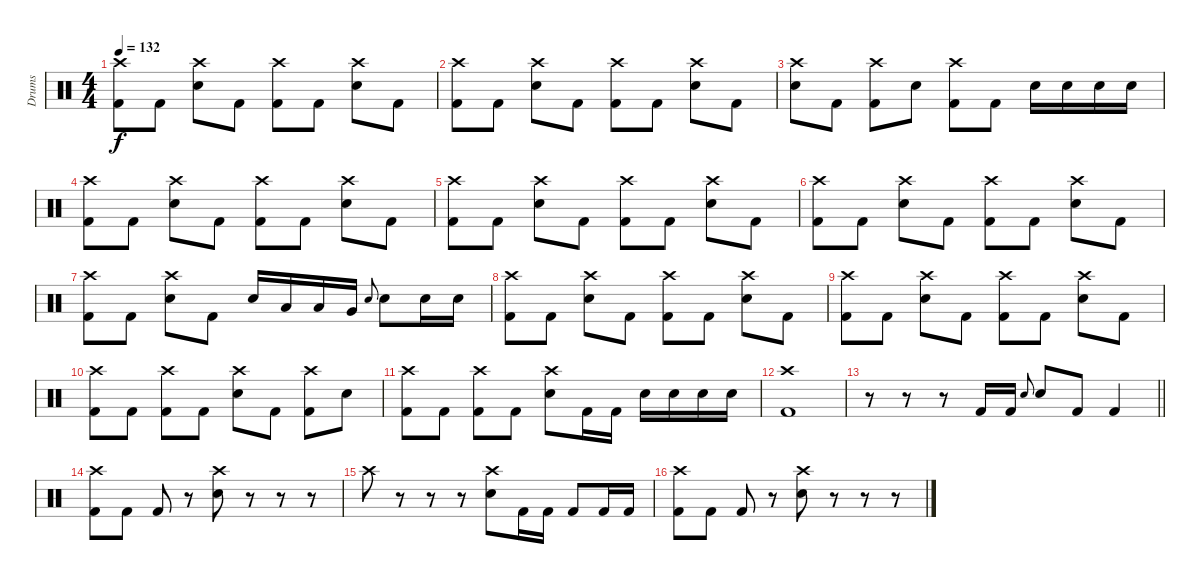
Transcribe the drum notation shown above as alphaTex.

\track ("Drums" "Drums") {instrument percussion}
\staff {score}
\articulation defaults
\ts (4 4)
\tempo 132
\clef neutral
\ks c
("Crash high (hit)" "Kick (hit) 2").8{dy f} "Kick (hit) 2".8 ("Crash high (hit)" "Electric Snare (hit)").8 "Kick (hit) 2".8 ("Crash high (hit)" "Kick (hit) 2").8 "Kick (hit) 2".8 ("Crash high (hit)" "Electric Snare (hit)").8 "Kick (hit) 2".8 |
("Crash high (hit)" "Kick (hit) 2").8 "Kick (hit) 2".8 ("Crash high (hit)" "Electric Snare (hit)").8 "Kick (hit) 2".8 ("Crash high (hit)" "Kick (hit) 2").8 "Kick (hit) 2".8 ("Crash high (hit)" "Electric Snare (hit)").8 "Kick (hit) 2".8 |
("Crash high (hit)" "Electric Snare (hit)").8 "Kick (hit) 2".8 ("Crash high (hit)" "Kick (hit) 2").8 "Electric Snare (hit)".8 ("Crash high (hit)" "Kick (hit) 2").8 "Kick (hit) 2".8 "Electric Snare (hit)".16 "Electric Snare (hit)".16 "Electric Snare (hit)".16 "Electric Snare (hit)".16 |
("Crash high (hit)" "Kick (hit) 2").8 "Kick (hit) 2".8 ("Crash high (hit)" "Electric Snare (hit)").8 "Kick (hit) 2".8 ("Crash high (hit)" "Kick (hit) 2").8 "Kick (hit) 2".8 ("Crash high (hit)" "Electric Snare (hit)").8 "Kick (hit) 2".8 |
("Crash high (hit)" "Kick (hit) 2").8 "Kick (hit) 2".8 ("Crash high (hit)" "Electric Snare (hit)").8 "Kick (hit) 2".8 ("Crash high (hit)" "Kick (hit) 2").8 "Kick (hit) 2".8 ("Crash high (hit)" "Electric Snare (hit)").8 "Kick (hit) 2".8 |
("Crash high (hit)" "Kick (hit) 2").8 "Kick (hit) 2".8 ("Crash high (hit)" "Electric Snare (hit)").8 "Kick (hit) 2".8 ("Crash high (hit)" "Kick (hit) 2").8 "Kick (hit) 2".8 ("Crash high (hit)" "Electric Snare (hit)").8 "Kick (hit) 2".8 |
("Crash high (hit)" "Kick (hit) 2").8 "Kick (hit) 2".8 ("Crash high (hit)" "Electric Snare (hit)").8 "Kick (hit) 2".8 "Electric Snare (hit)".16 "Low Tom (hit)".16 "Low Tom (hit)".16 "Very Low Tom (hit)".16 "Electric Snare (hit)".8{gr onbeat} "Electric Snare (hit)".8 "Electric Snare (hit)".16 "Electric Snare (hit)".16 |
("Crash high (hit)" "Kick (hit) 2").8 "Kick (hit) 2".8 ("Crash high (hit)" "Electric Snare (hit)").8 "Kick (hit) 2".8 ("Crash high (hit)" "Kick (hit) 2").8 "Kick (hit) 2".8 ("Crash high (hit)" "Electric Snare (hit)").8 "Kick (hit) 2".8 |
("Crash high (hit)" "Kick (hit) 2").8 "Kick (hit) 2".8 ("Crash high (hit)" "Electric Snare (hit)").8 "Kick (hit) 2".8 ("Crash high (hit)" "Kick (hit) 2").8 "Kick (hit) 2".8 ("Crash high (hit)" "Electric Snare (hit)").8 "Kick (hit) 2".8 |
("Crash high (hit)" "Kick (hit) 2").8 "Kick (hit) 2".8 ("Crash high (hit)" "Kick (hit) 2").8 "Kick (hit) 2".8 ("Crash high (hit)" "Electric Snare (hit)").8 "Kick (hit) 2".8 ("Crash high (hit)" "Kick (hit) 2").8 "Electric Snare (hit)".8 |
("Crash high (hit)" "Kick (hit) 2").8 "Kick (hit) 2".8 ("Crash high (hit)" "Kick (hit) 2").8 "Kick (hit) 2".8 ("Crash high (hit)" "Electric Snare (hit)").8 "Kick (hit) 2".16 "Kick (hit) 2".16 "Electric Snare (hit)".16 "Electric Snare (hit)".16 "Electric Snare (hit)".16 "Electric Snare (hit)".16 |
("Crash high (hit)" "Kick (hit) 2").1 |
\barLineRight lightlight
r.8 r.8 r.8 "Kick (hit) 2".16 "Kick (hit) 2".16 "Electric Snare (hit)".8{gr onbeat} "Electric Snare (hit)".8 "Kick (hit) 2".8 "Kick (hit) 2".4 |
\section ("" "")
("Crash high (hit)" "Kick (hit) 2").8 "Kick (hit) 2".8 "Kick (hit) 2".8 r.8 ("Crash high (hit)" "Electric Snare (hit)").8 r.8 r.8 r.8 |
"Crash high (hit)".8 r.8 r.8 r.8 ("Crash high (hit)" "Electric Snare (hit)").8 "Kick (hit) 2".16 "Kick (hit) 2".16 "Kick (hit) 2".8 "Kick (hit) 2".16 "Kick (hit) 2".16 |
("Crash high (hit)" "Kick (hit) 2").8 "Kick (hit) 2".8 "Kick (hit) 2".8 r.8 ("Crash high (hit)" "Electric Snare (hit)").8 r.8 r.8 r.8
